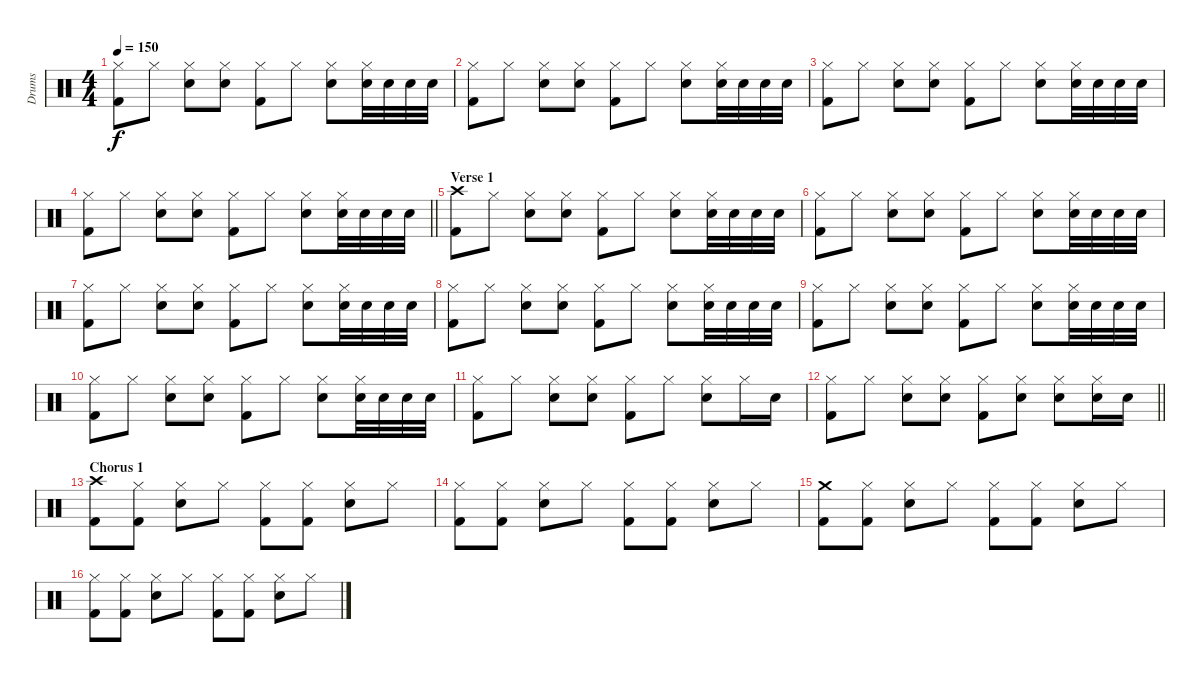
\track ("Drums" "Drums") {instrument percussion}
\staff {score}
\articulation defaults
\ts (4 4)
\tempo 150
\clef neutral
\ks c
("Kick (hit) 2" "Hi-Hat (closed)").8{dy f} "Hi-Hat (closed)".8 ("Hi-Hat (closed)" "Snare (hit) 2").8 ("Hi-Hat (closed)" "Snare (hit) 2").8 ("Kick (hit) 2" "Hi-Hat (closed)").8 "Hi-Hat (closed)".8 ("Hi-Hat (closed)" "Snare (hit) 2").8 ("Hi-Hat (closed)" "Snare (hit) 2").32 "Snare (hit) 2".32 "Snare (hit) 2".32 "Snare (hit) 2".32 |
("Kick (hit) 2" "Hi-Hat (closed)").8 "Hi-Hat (closed)".8 ("Hi-Hat (closed)" "Snare (hit) 2").8 ("Hi-Hat (closed)" "Snare (hit) 2").8 ("Kick (hit) 2" "Hi-Hat (closed)").8 "Hi-Hat (closed)".8 ("Hi-Hat (closed)" "Snare (hit) 2").8 ("Hi-Hat (closed)" "Snare (hit) 2").32 "Snare (hit) 2".32 "Snare (hit) 2".32 "Snare (hit) 2".32 |
("Kick (hit) 2" "Hi-Hat (closed)").8 "Hi-Hat (closed)".8 ("Hi-Hat (closed)" "Snare (hit) 2").8 ("Hi-Hat (closed)" "Snare (hit) 2").8 ("Kick (hit) 2" "Hi-Hat (closed)").8 "Hi-Hat (closed)".8 ("Hi-Hat (closed)" "Snare (hit) 2").8 ("Hi-Hat (closed)" "Snare (hit) 2").32 "Snare (hit) 2".32 "Snare (hit) 2".32 "Snare (hit) 2".32 |
\barLineRight lightlight
("Kick (hit) 2" "Hi-Hat (closed)").8 "Hi-Hat (closed)".8 ("Hi-Hat (closed)" "Snare (hit) 2").8 ("Hi-Hat (closed)" "Snare (hit) 2").8 ("Kick (hit) 2" "Hi-Hat (closed)").8 "Hi-Hat (closed)".8 ("Hi-Hat (closed)" "Snare (hit) 2").8 ("Hi-Hat (closed)" "Snare (hit) 2").32 "Snare (hit) 2".32 "Snare (hit) 2".32 "Snare (hit) 2".32 |
\section ("" "Verse 1")
("Kick (hit) 2" "Crash high (hit)").8 "Hi-Hat (closed)".8 ("Hi-Hat (closed)" "Snare (hit) 2").8 ("Hi-Hat (closed)" "Snare (hit) 2").8 ("Kick (hit) 2" "Hi-Hat (closed)").8 "Hi-Hat (closed)".8 ("Hi-Hat (closed)" "Snare (hit) 2").8{beam Down} ("Hi-Hat (closed)" "Snare (hit) 2").32{beam Down} "Snare (hit) 2".32{beam Down} "Snare (hit) 2".32{beam Down} "Snare (hit) 2".32{beam Down} |
("Kick (hit) 2" "Hi-Hat (closed)").8 "Hi-Hat (closed)".8 ("Hi-Hat (closed)" "Snare (hit) 2").8 ("Hi-Hat (closed)" "Snare (hit) 2").8 ("Kick (hit) 2" "Hi-Hat (closed)").8 "Hi-Hat (closed)".8 ("Hi-Hat (closed)" "Snare (hit) 2").8 ("Hi-Hat (closed)" "Snare (hit) 2").32 "Snare (hit) 2".32 "Snare (hit) 2".32 "Snare (hit) 2".32 |
("Kick (hit) 2" "Hi-Hat (closed)").8 "Hi-Hat (closed)".8 ("Hi-Hat (closed)" "Snare (hit) 2").8 ("Hi-Hat (closed)" "Snare (hit) 2").8 ("Kick (hit) 2" "Hi-Hat (closed)").8 "Hi-Hat (closed)".8 ("Hi-Hat (closed)" "Snare (hit) 2").8 ("Hi-Hat (closed)" "Snare (hit) 2").32 "Snare (hit) 2".32 "Snare (hit) 2".32 "Snare (hit) 2".32 |
("Kick (hit) 2" "Hi-Hat (closed)").8 "Hi-Hat (closed)".8 ("Hi-Hat (closed)" "Snare (hit) 2").8 ("Hi-Hat (closed)" "Snare (hit) 2").8 ("Kick (hit) 2" "Hi-Hat (closed)").8 "Hi-Hat (closed)".8 ("Hi-Hat (closed)" "Snare (hit) 2").8 ("Hi-Hat (closed)" "Snare (hit) 2").32 "Snare (hit) 2".32 "Snare (hit) 2".32 "Snare (hit) 2".32 |
("Kick (hit) 2" "Hi-Hat (closed)").8 "Hi-Hat (closed)".8 ("Hi-Hat (closed)" "Snare (hit) 2").8 ("Hi-Hat (closed)" "Snare (hit) 2").8 ("Kick (hit) 2" "Hi-Hat (closed)").8 "Hi-Hat (closed)".8 ("Hi-Hat (closed)" "Snare (hit) 2").8 ("Hi-Hat (closed)" "Snare (hit) 2").32 "Snare (hit) 2".32 "Snare (hit) 2".32 "Snare (hit) 2".32 |
("Kick (hit) 2" "Hi-Hat (closed)").8 "Hi-Hat (closed)".8 ("Hi-Hat (closed)" "Snare (hit) 2").8 ("Hi-Hat (closed)" "Snare (hit) 2").8 ("Kick (hit) 2" "Hi-Hat (closed)").8 "Hi-Hat (closed)".8 ("Hi-Hat (closed)" "Snare (hit) 2").8 ("Hi-Hat (closed)" "Snare (hit) 2").32 "Snare (hit) 2".32 "Snare (hit) 2".32 "Snare (hit) 2".32 |
("Kick (hit) 2" "Hi-Hat (closed)").8 "Hi-Hat (closed)".8 ("Hi-Hat (closed)" "Snare (hit) 2").8 ("Hi-Hat (closed)" "Snare (hit) 2").8 ("Kick (hit) 2" "Hi-Hat (closed)").8 "Hi-Hat (closed)".8 ("Hi-Hat (closed)" "Snare (hit) 2").8 "Hi-Hat (closed)".16 "Snare (hit) 2".16 |
\barLineRight lightlight
("Kick (hit) 2" "Hi-Hat (closed)").8 "Hi-Hat (closed)".8 ("Hi-Hat (closed)" "Snare (hit) 2").8 ("Hi-Hat (closed)" "Snare (hit) 2").8 ("Kick (hit) 2" "Hi-Hat (closed)").8 ("Hi-Hat (closed)" "Snare (hit) 2").8 ("Hi-Hat (closed)" "Snare (hit) 2").8 ("Hi-Hat (closed)" "Snare (hit) 2").16 "Snare (hit) 2".16 |
\section ("" "Chorus 1")
("Kick (hit) 2" "Crash high (hit)").8 ("Kick (hit) 2" "Hi-Hat (closed)").8 ("Hi-Hat (closed)" "Snare (hit) 2").8 "Hi-Hat (closed)".8 ("Kick (hit) 2" "Hi-Hat (closed)").8 ("Kick (hit) 2" "Hi-Hat (closed)").8 ("Hi-Hat (closed)" "Snare (hit) 2").8 "Hi-Hat (closed)".8 |
("Kick (hit) 2" "Hi-Hat (closed)").8 ("Kick (hit) 2" "Hi-Hat (closed)").8 ("Hi-Hat (closed)" "Snare (hit) 2").8 "Hi-Hat (closed)".8 ("Kick (hit) 2" "Hi-Hat (closed)").8 ("Kick (hit) 2" "Hi-Hat (closed)").8 ("Hi-Hat (closed)" "Snare (hit) 2").8 "Hi-Hat (closed)".8 |
("Kick (hit) 2" "Crash medium (hit)").8 ("Kick (hit) 2" "Hi-Hat (closed)").8 ("Hi-Hat (closed)" "Snare (hit) 2").8 "Hi-Hat (closed)".8 ("Kick (hit) 2" "Hi-Hat (closed)").8 ("Kick (hit) 2" "Hi-Hat (closed)").8 ("Hi-Hat (closed)" "Snare (hit) 2").8 "Hi-Hat (closed)".8 |
("Kick (hit) 2" "Hi-Hat (closed)").8 ("Kick (hit) 2" "Hi-Hat (closed)").8 ("Hi-Hat (closed)" "Snare (hit) 2").8 "Hi-Hat (closed)".8 ("Kick (hit) 2" "Hi-Hat (closed)").8 ("Kick (hit) 2" "Hi-Hat (closed)").8 ("Hi-Hat (closed)" "Snare (hit) 2").8 "Hi-Hat (closed)".8
